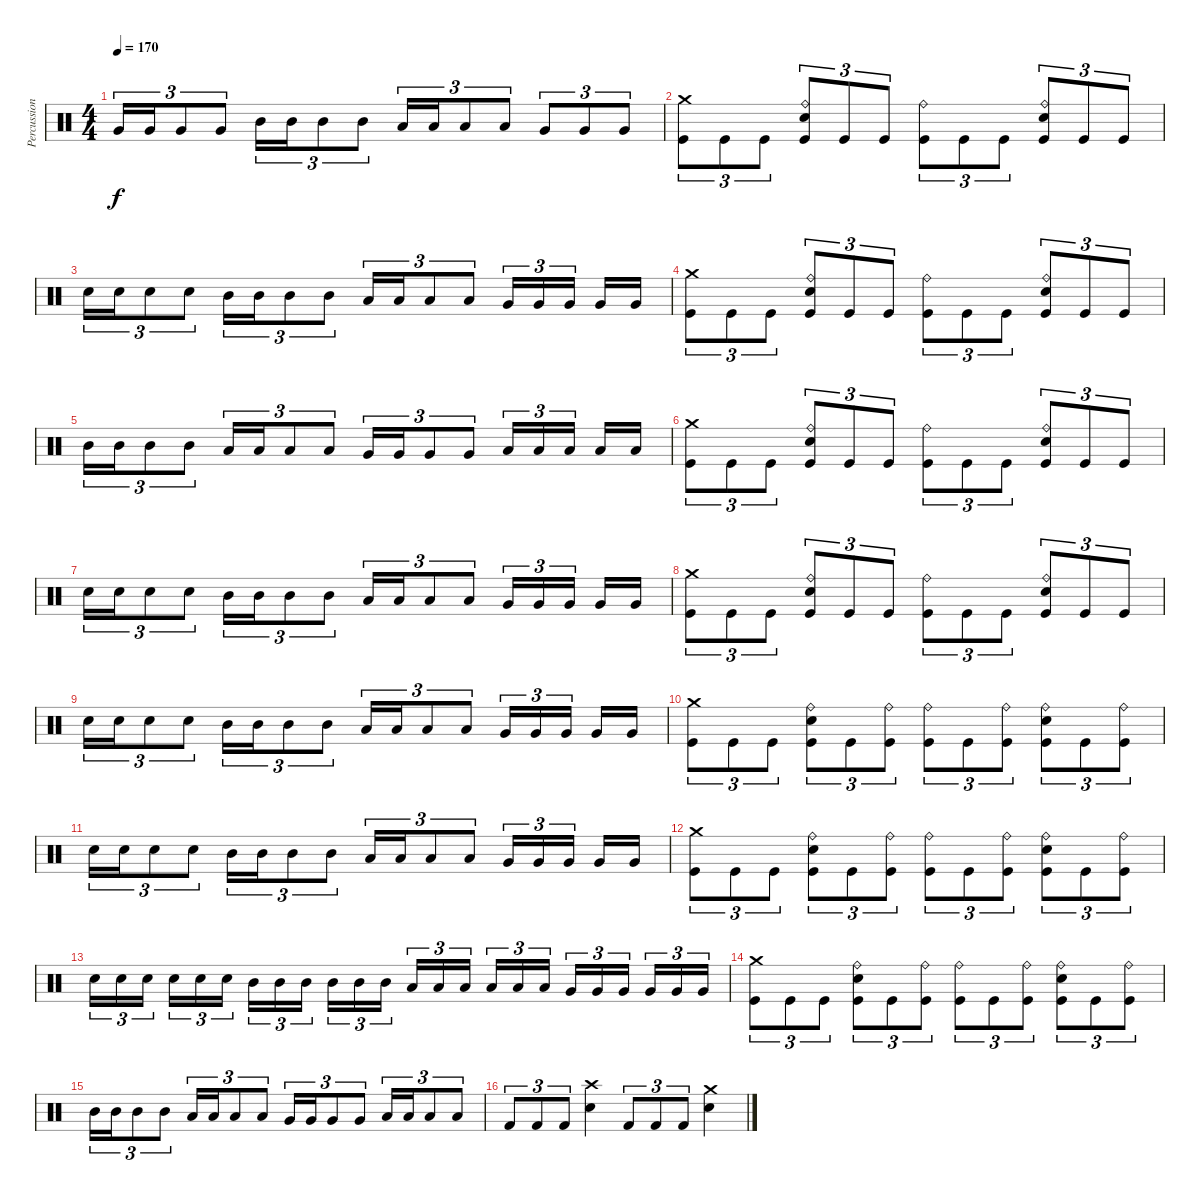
\track ("Percussions" "Percussion") {instrument percussion}
\staff {score}
\articulation defaults
\ts (4 4)
\tempo 170
\clef neutral
\ks c "Very Low Tom (hit)".16{tu (3 2) dy f} "Very Low Tom (hit)".16{tu (3 2)} "Very Low Tom (hit)".8{tu (3 2)} "Very Low Tom (hit)".8{tu (3 2)} "Mid Tom (hit)".16{tu (3 2)} "Mid Tom (hit)".16{tu (3 2)} "Mid Tom (hit)".8{tu (3 2)} "Mid Tom (hit)".8{tu (3 2)} "Low Tom (hit)".16{tu (3 2)} "Low Tom (hit)".16{tu (3 2)} "Low Tom (hit)".8{tu (3 2)} "Low Tom (hit)".8{tu (3 2)} "Very Low Tom (hit)".8{tu (3 2)} "Very Low Tom (hit)".8{tu (3 2)} "Very Low Tom (hit)".8{tu (3 2)}
|
("Crash medium (hit)" "Kick (hit)").8{tu (3 2)} "Kick (hit)".8{tu (3 2)} "Kick (hit)".8{tu (3 2)} ("Ride (bell)" "Electric Snare (hit)" "Kick (hit)").8{tu (3 2)} "Kick (hit)".8{tu (3 2)} "Kick (hit)".8{tu (3 2)} ("Ride (bell)" "Kick (hit)").8{tu (3 2)} "Kick (hit)".8{tu (3 2)} "Kick (hit)".8{tu (3 2)} ("Ride (bell)" "Electric Snare (hit)" "Kick (hit)").8{tu (3 2)} "Kick (hit)".8{tu (3 2)} "Kick (hit)".8{tu (3 2)} |
"Electric Snare (hit)".16{tu (3 2)} "Electric Snare (hit)".16{tu (3 2)} "Electric Snare (hit)".8{tu (3 2)} "Electric Snare (hit)".8{tu (3 2)} "Mid Tom (hit)".16{tu (3 2)} "Mid Tom (hit)".16{tu (3 2)} "Mid Tom (hit)".8{tu (3 2)} "Mid Tom (hit)".8{tu (3 2)} "Low Tom (hit)".16{tu (3 2)} "Low Tom (hit)".16{tu (3 2)} "Low Tom (hit)".8{tu (3 2)} "Low Tom (hit)".8{tu (3 2)} "Very Low Tom (hit)".16{tu (3 2)} "Very Low Tom (hit)".16{tu (3 2)} "Very Low Tom (hit)".16{tu (3 2)} "Very Low Tom (hit)".16 "Very Low Tom (hit)".16 |
("Crash medium (hit)" "Kick (hit)").8{tu (3 2)} "Kick (hit)".8{tu (3 2)} "Kick (hit)".8{tu (3 2)} ("Ride (bell)" "Electric Snare (hit)" "Kick (hit)").8{tu (3 2)} "Kick (hit)".8{tu (3 2)} "Kick (hit)".8{tu (3 2)} ("Ride (bell)" "Kick (hit)").8{tu (3 2)} "Kick (hit)".8{tu (3 2)} "Kick (hit)".8{tu (3 2)} ("Ride (bell)" "Electric Snare (hit)" "Kick (hit)").8{tu (3 2)} "Kick (hit)".8{tu (3 2)} "Kick (hit)".8{tu (3 2)} |
"Mid Tom (hit)".16{tu (3 2)} "Mid Tom (hit)".16{tu (3 2)} "Mid Tom (hit)".8{tu (3 2)} "Mid Tom (hit)".8{tu (3 2)} "Low Tom (hit)".16{tu (3 2)} "Low Tom (hit)".16{tu (3 2)} "Low Tom (hit)".8{tu (3 2)} "Low Tom (hit)".8{tu (3 2)} "Very Low Tom (hit)".16{tu (3 2)} "Very Low Tom (hit)".16{tu (3 2)} "Very Low Tom (hit)".8{tu (3 2)} "Very Low Tom (hit)".8{tu (3 2)} "Low Floor Tom (hit)".16{tu (3 2)} "Low Floor Tom (hit)".16{tu (3 2)} "Low Floor Tom (hit)".16{tu (3 2)} "Low Floor Tom (hit)".16 "Low Floor Tom (hit)".16 |
("Crash medium (hit)" "Kick (hit)").8{tu (3 2)} "Kick (hit)".8{tu (3 2)} "Kick (hit)".8{tu (3 2)} ("Ride (bell)" "Electric Snare (hit)" "Kick (hit)").8{tu (3 2)} "Kick (hit)".8{tu (3 2)} "Kick (hit)".8{tu (3 2)} ("Ride (bell)" "Kick (hit)").8{tu (3 2)} "Kick (hit)".8{tu (3 2)} "Kick (hit)".8{tu (3 2)} ("Ride (bell)" "Electric Snare (hit)" "Kick (hit)").8{tu (3 2)} "Kick (hit)".8{tu (3 2)} "Kick (hit)".8{tu (3 2)} |
"Electric Snare (hit)".16{tu (3 2)} "Electric Snare (hit)".16{tu (3 2)} "Electric Snare (hit)".8{tu (3 2)} "Electric Snare (hit)".8{tu (3 2)} "Mid Tom (hit)".16{tu (3 2)} "Mid Tom (hit)".16{tu (3 2)} "Mid Tom (hit)".8{tu (3 2)} "Mid Tom (hit)".8{tu (3 2)} "Low Tom (hit)".16{tu (3 2)} "Low Tom (hit)".16{tu (3 2)} "Low Tom (hit)".8{tu (3 2)} "Low Tom (hit)".8{tu (3 2)} "Very Low Tom (hit)".16{tu (3 2)} "Very Low Tom (hit)".16{tu (3 2)} "Very Low Tom (hit)".16{tu (3 2)} "Very Low Tom (hit)".16 "Very Low Tom (hit)".16 |
("Crash medium (hit)" "Kick (hit)").8{tu (3 2)} "Kick (hit)".8{tu (3 2)} "Kick (hit)".8{tu (3 2)} ("Ride (bell)" "Electric Snare (hit)" "Kick (hit)").8{tu (3 2)} "Kick (hit)".8{tu (3 2)} "Kick (hit)".8{tu (3 2)} ("Ride (bell)" "Kick (hit)").8{tu (3 2)} "Kick (hit)".8{tu (3 2)} "Kick (hit)".8{tu (3 2)} ("Ride (bell)" "Electric Snare (hit)" "Kick (hit)").8{tu (3 2)} "Kick (hit)".8{tu (3 2)} "Kick (hit)".8{tu (3 2)} |
"Electric Snare (hit)".16{tu (3 2)} "Electric Snare (hit)".16{tu (3 2)} "Electric Snare (hit)".8{tu (3 2)} "Electric Snare (hit)".8{tu (3 2)} "Mid Tom (hit)".16{tu (3 2)} "Mid Tom (hit)".16{tu (3 2)} "Mid Tom (hit)".8{tu (3 2)} "Mid Tom (hit)".8{tu (3 2)} "Low Tom (hit)".16{tu (3 2)} "Low Tom (hit)".16{tu (3 2)} "Low Tom (hit)".8{tu (3 2)} "Low Tom (hit)".8{tu (3 2)} "Very Low Tom (hit)".16{tu (3 2)} "Very Low Tom (hit)".16{tu (3 2)} "Very Low Tom (hit)".16{tu (3 2)} "Very Low Tom (hit)".16 "Very Low Tom (hit)".16 |
("Crash medium (hit)" "Kick (hit)").8{tu (3 2)} "Kick (hit)".8{tu (3 2)} "Kick (hit)".8{tu (3 2)} ("Ride (bell)" "Electric Snare (hit)" "Kick (hit)").8{tu (3 2)} "Kick (hit)".8{tu (3 2)} ("Ride (bell)" "Kick (hit)").8{tu (3 2)} ("Ride (bell)" "Kick (hit)").8{tu (3 2)} "Kick (hit)".8{tu (3 2)} ("Ride (bell)" "Kick (hit)").8{tu (3 2)} ("Ride (bell)" "Electric Snare (hit)" "Kick (hit)").8{tu (3 2)} "Kick (hit)".8{tu (3 2)} ("Ride (bell)" "Kick (hit)").8{tu (3 2)} |
"Electric Snare (hit)".16{tu (3 2)} "Electric Snare (hit)".16{tu (3 2)} "Electric Snare (hit)".8{tu (3 2)} "Electric Snare (hit)".8{tu (3 2)} "Mid Tom (hit)".16{tu (3 2)} "Mid Tom (hit)".16{tu (3 2)} "Mid Tom (hit)".8{tu (3 2)} "Mid Tom (hit)".8{tu (3 2)} "Low Tom (hit)".16{tu (3 2)} "Low Tom (hit)".16{tu (3 2)} "Low Tom (hit)".8{tu (3 2)} "Low Tom (hit)".8{tu (3 2)} "Very Low Tom (hit)".16{tu (3 2)} "Very Low Tom (hit)".16{tu (3 2)} "Very Low Tom (hit)".16{tu (3 2)} "Very Low Tom (hit)".16 "Very Low Tom (hit)".16 |
("Crash medium (hit)" "Kick (hit)").8{tu (3 2)} "Kick (hit)".8{tu (3 2)} "Kick (hit)".8{tu (3 2)} ("Ride (bell)" "Electric Snare (hit)" "Kick (hit)").8{tu (3 2)} "Kick (hit)".8{tu (3 2)} ("Ride (bell)" "Kick (hit)").8{tu (3 2)} ("Ride (bell)" "Kick (hit)").8{tu (3 2)} "Kick (hit)".8{tu (3 2)} ("Ride (bell)" "Kick (hit)").8{tu (3 2)} ("Ride (bell)" "Electric Snare (hit)" "Kick (hit)").8{tu (3 2)} "Kick (hit)".8{tu (3 2)} ("Ride (bell)" "Kick (hit)").8{tu (3 2)} |
"Electric Snare (hit)".16{tu (3 2)} "Electric Snare (hit)".16{tu (3 2)} "Electric Snare (hit)".16{tu (3 2)} "Electric Snare (hit)".16{tu (3 2)} "Electric Snare (hit)".16{tu (3 2)} "Electric Snare (hit)".16{tu (3 2)} "Mid Tom (hit)".16{tu (3 2)} "Mid Tom (hit)".16{tu (3 2)} "Mid Tom (hit)".16{tu (3 2)} "Mid Tom (hit)".16{tu (3 2)} "Mid Tom (hit)".16{tu (3 2)} "Mid Tom (hit)".16{tu (3 2)} "Low Tom (hit)".16{tu (3 2)} "Low Tom (hit)".16{tu (3 2)} "Low Tom (hit)".16{tu (3 2)} "Low Tom (hit)".16{tu (3 2)} "Low Tom (hit)".16{tu (3 2)} "Low Tom (hit)".16{tu (3 2)} "Very Low Tom (hit)".16{tu (3 2)} "Very Low Tom (hit)".16{tu (3 2)} "Very Low Tom (hit)".16{tu (3 2)} "Very Low Tom (hit)".16{tu (3 2)} "Very Low Tom (hit)".16{tu (3 2)} "Very Low Tom (hit)".16{tu (3 2)} |
("Crash medium (hit)" "Kick (hit)").8{tu (3 2)} "Kick (hit)".8{tu (3 2)} "Kick (hit)".8{tu (3 2)} ("Ride (bell)" "Electric Snare (hit)" "Kick (hit)").8{tu (3 2)} "Kick (hit)".8{tu (3 2)} ("Ride (bell)" "Kick (hit)").8{tu (3 2)} ("Ride (bell)" "Kick (hit)").8{tu (3 2)} "Kick (hit)".8{tu (3 2)} ("Ride (bell)" "Kick (hit)").8{tu (3 2)} ("Ride (bell)" "Electric Snare (hit)" "Kick (hit)").8{tu (3 2)} "Kick (hit)".8{tu (3 2)} ("Ride (bell)" "Kick (hit)").8{tu (3 2)} |
"Mid Tom (hit)".16{tu (3 2)} "Mid Tom (hit)".16{tu (3 2)} "Mid Tom (hit)".8{tu (3 2)} "Mid Tom (hit)".8{tu (3 2)} "Low Tom (hit)".16{tu (3 2)} "Low Tom (hit)".16{tu (3 2)} "Low Tom (hit)".8{tu (3 2)} "Low Tom (hit)".8{tu (3 2)} "Very Low Tom (hit)".16{tu (3 2)} "Very Low Tom (hit)".16{tu (3 2)} "Very Low Tom (hit)".8{tu (3 2)} "Very Low Tom (hit)".8{tu (3 2)} "Low Floor Tom (hit)".16{tu (3 2)} "Low Floor Tom (hit)".16{tu (3 2)} "Low Floor Tom (hit)".8{tu (3 2)} "Low Floor Tom (hit)".8{tu (3 2)} |
"Kick (hit) 2".8{tu (3 2)} "Kick (hit) 2".8{tu (3 2)} "Kick (hit) 2".8{tu (3 2)} ("Crash high (hit)" "Electric Snare (hit)").4 "Kick (hit) 2".8{tu (3 2)} "Kick (hit) 2".8{tu (3 2)} "Kick (hit) 2".8{tu (3 2)} ("Crash medium (hit)" "Electric Snare (hit)").4
